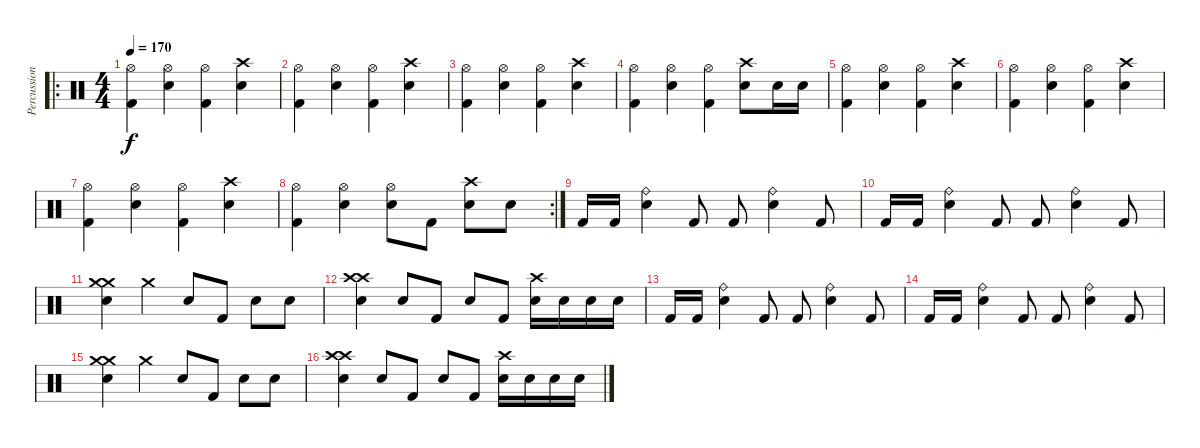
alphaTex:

\track ("Percussion" "Percussion") {instrument percussion}
\staff {score}
\articulation defaults
\ro
\ts (4 4)
\tempo 170
\clef neutral
\ks c
("Hi-Hat (open)" "Kick (hit) 2").4{dy f} ("Hi-Hat (open)" "Electric Snare (hit)").4 ("Hi-Hat (open)" "Kick (hit) 2").4 ("Crash high (hit)" "Electric Snare (hit)").4 |
("Hi-Hat (open)" "Kick (hit) 2").4 ("Hi-Hat (open)" "Electric Snare (hit)").4 ("Hi-Hat (open)" "Kick (hit) 2").4 ("Crash high (hit)" "Electric Snare (hit)").4 |
("Hi-Hat (open)" "Kick (hit) 2").4 ("Hi-Hat (open)" "Electric Snare (hit)").4 ("Hi-Hat (open)" "Kick (hit) 2").4 ("Crash high (hit)" "Electric Snare (hit)").4 |
("Hi-Hat (open)" "Kick (hit) 2").4 ("Hi-Hat (open)" "Electric Snare (hit)").4 ("Hi-Hat (open)" "Kick (hit) 2").4 ("Crash high (hit)" "Electric Snare (hit)").8 "Electric Snare (hit)".16 "Electric Snare (hit)".16 |
("Hi-Hat (open)" "Kick (hit) 2").4 ("Hi-Hat (open)" "Electric Snare (hit)").4 ("Hi-Hat (open)" "Kick (hit) 2").4 ("Crash high (hit)" "Electric Snare (hit)").4 |
("Hi-Hat (open)" "Kick (hit) 2").4 ("Hi-Hat (open)" "Electric Snare (hit)").4 ("Hi-Hat (open)" "Kick (hit) 2").4 ("Crash high (hit)" "Electric Snare (hit)").4 |
("Hi-Hat (open)" "Kick (hit) 2").4 ("Hi-Hat (open)" "Electric Snare (hit)").4 ("Hi-Hat (open)" "Kick (hit) 2").4 ("Crash high (hit)" "Electric Snare (hit)").4 |
\rc 2
("Hi-Hat (open)" "Kick (hit) 2").4 ("Hi-Hat (open)" "Electric Snare (hit)").4 ("Hi-Hat (open)" "Electric Snare (hit)").8 "Kick (hit) 2".8 ("Crash high (hit)" "Electric Snare (hit)").8 "Electric Snare (hit)".8 |
"Kick (hit) 2".16 "Kick (hit) 2".16 ("Ride (bell)" "Electric Snare (hit)").4 "Kick (hit) 2".8 "Kick (hit) 2".8 ("Ride (bell)" "Electric Snare (hit)").4 "Kick (hit) 2".8 |
"Kick (hit) 2".16 "Kick (hit) 2".16 ("Ride (bell)" "Electric Snare (hit)").4 "Kick (hit) 2".8 "Kick (hit) 2".8 ("Ride (bell)" "Electric Snare (hit)").4 "Kick (hit) 2".8 |
("Crash medium (hit)" "Crash medium (hit)" "Electric Snare (hit)").4 "Crash medium (hit)".4 "Electric Snare (hit)".8 "Kick (hit) 2".8 "Electric Snare (hit)".8 "Electric Snare (hit)".8 |
("Crash high (hit)" "Crash high (hit)" "Electric Snare (hit)").4 "Electric Snare (hit)".8 "Kick (hit) 2".8 "Electric Snare (hit)".8 "Kick (hit) 2".8 ("Crash high (hit)" "Electric Snare (hit)").16 "Electric Snare (hit)".16 "Electric Snare (hit)".16 "Electric Snare (hit)".16 |
"Kick (hit) 2".16 "Kick (hit) 2".16 ("Ride (bell)" "Electric Snare (hit)").4 "Kick (hit) 2".8 "Kick (hit) 2".8 ("Ride (bell)" "Electric Snare (hit)").4 "Kick (hit) 2".8 |
"Kick (hit) 2".16 "Kick (hit) 2".16 ("Ride (bell)" "Electric Snare (hit)").4 "Kick (hit) 2".8 "Kick (hit) 2".8 ("Ride (bell)" "Electric Snare (hit)").4 "Kick (hit) 2".8 |
("Crash medium (hit)" "Crash medium (hit)" "Electric Snare (hit)").4 "Crash medium (hit)".4 "Electric Snare (hit)".8 "Kick (hit) 2".8 "Electric Snare (hit)".8 "Electric Snare (hit)".8 |
("Crash high (hit)" "Crash high (hit)" "Electric Snare (hit)").4 "Electric Snare (hit)".8 "Kick (hit) 2".8 "Electric Snare (hit)".8 "Kick (hit) 2".8 ("Crash high (hit)" "Electric Snare (hit)").16 "Electric Snare (hit)".16 "Electric Snare (hit)".16 "Electric Snare (hit)".16
